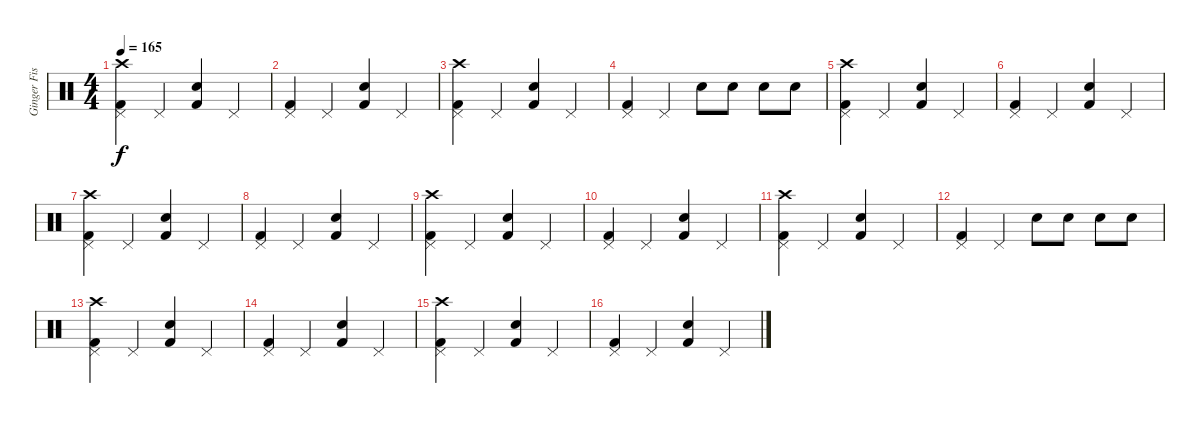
\track ("Ginger Fish" "Ginger Fis") {instrument percussion}
\staff {score}
\articulation defaults
\ts (4 4)
\tempo 165
\clef neutral
\ks c
("Crash high (hit)" "Pedal Hi-Hat (hit)" "Kick (hit) 2").4{dy f} "Pedal Hi-Hat (hit)".4 ("Electric Snare (hit)" "Kick (hit) 2").4 "Pedal Hi-Hat (hit)".4 |
("Pedal Hi-Hat (hit)" "Kick (hit) 2").4 "Pedal Hi-Hat (hit)".4 ("Electric Snare (hit)" "Kick (hit) 2").4 "Pedal Hi-Hat (hit)".4 |
("Crash high (hit)" "Pedal Hi-Hat (hit)" "Kick (hit) 2").4 "Pedal Hi-Hat (hit)".4 ("Electric Snare (hit)" "Kick (hit) 2").4 "Pedal Hi-Hat (hit)".4 |
("Pedal Hi-Hat (hit)" "Kick (hit) 2").4 "Pedal Hi-Hat (hit)".4 "Electric Snare (hit)".8 "Electric Snare (hit)".8 "Electric Snare (hit)".8 "Electric Snare (hit)".8 |
("Crash high (hit)" "Pedal Hi-Hat (hit)" "Kick (hit) 2").4 "Pedal Hi-Hat (hit)".4 ("Electric Snare (hit)" "Kick (hit) 2").4 "Pedal Hi-Hat (hit)".4 |
("Pedal Hi-Hat (hit)" "Kick (hit) 2").4 "Pedal Hi-Hat (hit)".4 ("Electric Snare (hit)" "Kick (hit) 2").4 "Pedal Hi-Hat (hit)".4 |
("Crash high (hit)" "Pedal Hi-Hat (hit)" "Kick (hit) 2").4 "Pedal Hi-Hat (hit)".4 ("Electric Snare (hit)" "Kick (hit) 2").4 "Pedal Hi-Hat (hit)".4 |
("Pedal Hi-Hat (hit)" "Kick (hit) 2").4 "Pedal Hi-Hat (hit)".4 ("Electric Snare (hit)" "Kick (hit) 2").4 "Pedal Hi-Hat (hit)".4 |
("Crash high (hit)" "Pedal Hi-Hat (hit)" "Kick (hit) 2").4 "Pedal Hi-Hat (hit)".4 ("Electric Snare (hit)" "Kick (hit) 2").4 "Pedal Hi-Hat (hit)".4 |
("Pedal Hi-Hat (hit)" "Kick (hit) 2").4 "Pedal Hi-Hat (hit)".4 ("Electric Snare (hit)" "Kick (hit) 2").4 "Pedal Hi-Hat (hit)".4 |
("Crash high (hit)" "Pedal Hi-Hat (hit)" "Kick (hit) 2").4 "Pedal Hi-Hat (hit)".4 ("Electric Snare (hit)" "Kick (hit) 2").4 "Pedal Hi-Hat (hit)".4 |
("Pedal Hi-Hat (hit)" "Kick (hit) 2").4 "Pedal Hi-Hat (hit)".4 "Electric Snare (hit)".8 "Electric Snare (hit)".8 "Electric Snare (hit)".8 "Electric Snare (hit)".8 |
("Crash high (hit)" "Pedal Hi-Hat (hit)" "Kick (hit) 2").4 "Pedal Hi-Hat (hit)".4 ("Electric Snare (hit)" "Kick (hit) 2").4 "Pedal Hi-Hat (hit)".4 |
("Pedal Hi-Hat (hit)" "Kick (hit) 2").4 "Pedal Hi-Hat (hit)".4 ("Electric Snare (hit)" "Kick (hit) 2").4 "Pedal Hi-Hat (hit)".4 |
("Crash high (hit)" "Pedal Hi-Hat (hit)" "Kick (hit) 2").4 "Pedal Hi-Hat (hit)".4 ("Electric Snare (hit)" "Kick (hit) 2").4 "Pedal Hi-Hat (hit)".4 |
("Pedal Hi-Hat (hit)" "Kick (hit) 2").4 "Pedal Hi-Hat (hit)".4 ("Electric Snare (hit)" "Kick (hit) 2").4 "Pedal Hi-Hat (hit)".4
